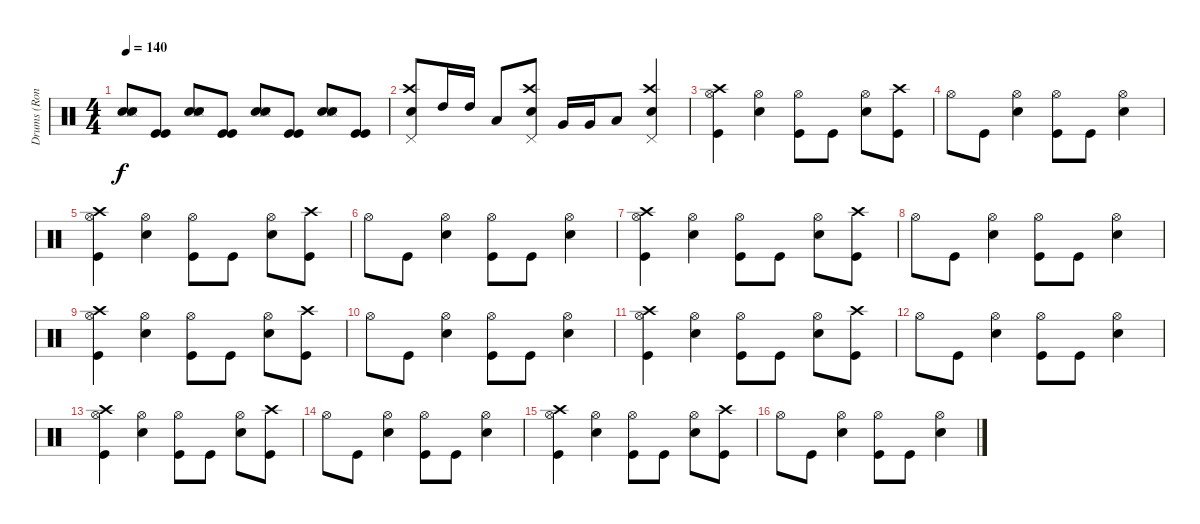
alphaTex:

\track ("Drums (Ron Welty)" "Drums (Ron") {instrument percussion}
\staff {score}
\articulation defaults
\ts (4 4)
\tempo 140
\clef neutral
\ks c
("Snare (hit) 2" "Snare (hit) 2" "Snare (side stick) 3").8{dy f} ("Kick (hit)" "Kick (hit)").8 ("Snare (hit) 2" "Snare (hit) 2" "Snare (side stick) 3").8 ("Kick (hit)" "Kick (hit)").8 ("Snare (hit) 2" "Snare (hit) 2" "Snare (side stick) 3").8 ("Kick (hit)" "Kick (hit)").8 ("Snare (hit) 2" "Snare (hit) 2" "Snare (side stick) 3").8 ("Kick (hit)" "Kick (hit)").8 |
("Snare (hit) 2" "Crash high (hit)" "Pedal Hi-Hat (hit)").8 "High Tom (hit)".16 "High Tom (hit)".16 "Low Tom (hit)".8 ("Snare (hit) 2" "Crash high (hit)" "Pedal Hi-Hat (hit)").8 "Very Low Tom (hit)".16 "Very Low Tom (hit)".16 "Low Floor Tom (hit)".8 ("Snare (hit) 2" "Crash high (hit)" "Pedal Hi-Hat (hit)").4 |
("Kick (hit)" "Crash high (hit)" "Hi-Hat (open)").4 ("Snare (hit) 2" "Hi-Hat (open)").4 ("Kick (hit)" "Hi-Hat (open)").8 "Kick (hit)".8 ("Snare (hit) 2" "Hi-Hat (open)").8 ("Kick (hit)" "Crash high (hit)").8 |
"Hi-Hat (open)".8 "Kick (hit)".8 ("Snare (hit) 2" "Hi-Hat (open)").4 ("Kick (hit)" "Hi-Hat (open)").8 "Kick (hit)".8 ("Snare (hit) 2" "Hi-Hat (open)").4 |
("Kick (hit)" "Crash high (hit)" "Hi-Hat (open)").4 ("Snare (hit) 2" "Hi-Hat (open)").4 ("Kick (hit)" "Hi-Hat (open)").8 "Kick (hit)".8 ("Snare (hit) 2" "Hi-Hat (open)").8 ("Kick (hit)" "Crash high (hit)").8 |
"Hi-Hat (open)".8 "Kick (hit)".8 ("Snare (hit) 2" "Hi-Hat (open)").4 ("Kick (hit)" "Hi-Hat (open)").8 "Kick (hit)".8 ("Snare (hit) 2" "Hi-Hat (open)").4 |
("Kick (hit)" "Crash high (hit)" "Hi-Hat (open)").4 ("Snare (hit) 2" "Hi-Hat (open)").4 ("Kick (hit)" "Hi-Hat (open)").8 "Kick (hit)".8 ("Snare (hit) 2" "Hi-Hat (open)").8 ("Kick (hit)" "Crash high (hit)").8 |
"Hi-Hat (open)".8 "Kick (hit)".8 ("Snare (hit) 2" "Hi-Hat (open)").4 ("Kick (hit)" "Hi-Hat (open)").8 "Kick (hit)".8 ("Snare (hit) 2" "Hi-Hat (open)").4 |
("Kick (hit)" "Crash high (hit)" "Hi-Hat (open)").4 ("Snare (hit) 2" "Hi-Hat (open)").4 ("Kick (hit)" "Hi-Hat (open)").8 "Kick (hit)".8 ("Snare (hit) 2" "Hi-Hat (open)").8 ("Kick (hit)" "Crash high (hit)").8 |
"Hi-Hat (open)".8 "Kick (hit)".8 ("Snare (hit) 2" "Hi-Hat (open)").4 ("Kick (hit)" "Hi-Hat (open)").8 "Kick (hit)".8 ("Snare (hit) 2" "Hi-Hat (open)").4 |
("Kick (hit)" "Crash high (hit)" "Hi-Hat (open)").4 ("Snare (hit) 2" "Hi-Hat (open)").4 ("Kick (hit)" "Hi-Hat (open)").8 "Kick (hit)".8 ("Snare (hit) 2" "Hi-Hat (open)").8 ("Kick (hit)" "Crash high (hit)").8 |
"Hi-Hat (open)".8 "Kick (hit)".8 ("Snare (hit) 2" "Hi-Hat (open)").4 ("Kick (hit)" "Hi-Hat (open)").8 "Kick (hit)".8 ("Snare (hit) 2" "Hi-Hat (open)").4 |
("Kick (hit)" "Crash high (hit)" "Hi-Hat (open)").4 ("Snare (hit) 2" "Hi-Hat (open)").4 ("Kick (hit)" "Hi-Hat (open)").8 "Kick (hit)".8 ("Snare (hit) 2" "Hi-Hat (open)").8 ("Kick (hit)" "Crash high (hit)").8 |
"Hi-Hat (open)".8 "Kick (hit)".8 ("Snare (hit) 2" "Hi-Hat (open)").4 ("Kick (hit)" "Hi-Hat (open)").8 "Kick (hit)".8 ("Snare (hit) 2" "Hi-Hat (open)").4 |
("Kick (hit)" "Crash high (hit)" "Hi-Hat (open)").4 ("Snare (hit) 2" "Hi-Hat (open)").4 ("Kick (hit)" "Hi-Hat (open)").8 "Kick (hit)".8 ("Snare (hit) 2" "Hi-Hat (open)").8 ("Kick (hit)" "Crash high (hit)").8 |
"Hi-Hat (open)".8 "Kick (hit)".8 ("Snare (hit) 2" "Hi-Hat (open)").4 ("Kick (hit)" "Hi-Hat (open)").8 "Kick (hit)".8 ("Snare (hit) 2" "Hi-Hat (open)").4
